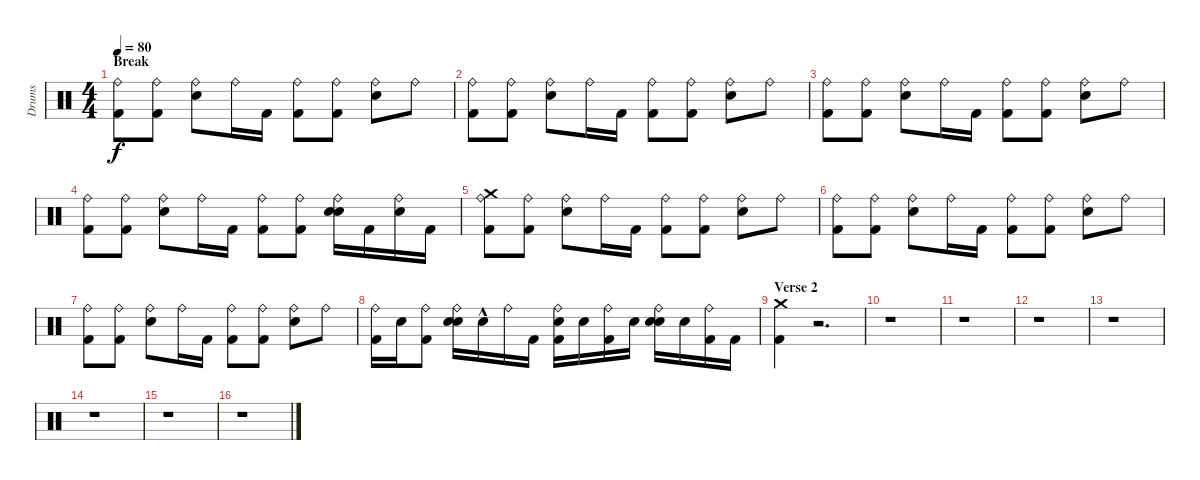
\track ("Drums" "Drums") {instrument percussion}
\staff {score}
\articulation defaults
\ts (4 4)
\section ("" "Break")
\tempo 80
\clef neutral
\ks c
("Kick (hit) 2" "Ride (bell)").8{dy f} ("Kick (hit) 2" "Ride (bell)").8 ("Electric Snare (hit)" "Ride (bell)").8 "Ride (bell)".16 "Kick (hit) 2".16 ("Kick (hit) 2" "Ride (bell)").8 ("Kick (hit) 2" "Ride (bell)").8 ("Electric Snare (hit)" "Ride (bell)").8 "Ride (bell)".8 |
("Kick (hit) 2" "Ride (bell)").8 ("Kick (hit) 2" "Ride (bell)").8 ("Electric Snare (hit)" "Ride (bell)").8 "Ride (bell)".16 "Kick (hit) 2".16 ("Kick (hit) 2" "Ride (bell)").8 ("Kick (hit) 2" "Ride (bell)").8 ("Electric Snare (hit)" "Ride (bell)").8 "Ride (bell)".8 |
("Kick (hit) 2" "Ride (bell)").8 ("Kick (hit) 2" "Ride (bell)").8 ("Electric Snare (hit)" "Ride (bell)").8 "Ride (bell)".16 "Kick (hit) 2".16 ("Kick (hit) 2" "Ride (bell)").8 ("Kick (hit) 2" "Ride (bell)").8 ("Electric Snare (hit)" "Ride (bell)").8 "Ride (bell)".8 |
("Kick (hit) 2" "Ride (bell)").8 ("Kick (hit) 2" "Ride (bell)").8 ("Electric Snare (hit)" "Ride (bell)").8 "Ride (bell)".16 "Kick (hit) 2".16 ("Kick (hit) 2" "Ride (bell)").8 ("Ride (bell)" "Kick (hit) 2").8 ("Ride (bell)" "Electric Snare (hit)" "Electric Snare (hit)").16 "Kick (hit) 2".16 ("Ride (bell)" "Electric Snare (hit)").16 "Kick (hit) 2".16 |
("Kick (hit) 2" "Ride (bell)" "Crash medium (hit)").8 ("Kick (hit) 2" "Ride (bell)").8 ("Electric Snare (hit)" "Ride (bell)").8 "Ride (bell)".16 "Kick (hit) 2".16 ("Kick (hit) 2" "Ride (bell)").8 ("Kick (hit) 2" "Ride (bell)").8 ("Electric Snare (hit)" "Ride (bell)").8 "Ride (bell)".8 |
("Kick (hit) 2" "Ride (bell)").8 ("Kick (hit) 2" "Ride (bell)").8 ("Electric Snare (hit)" "Ride (bell)").8 "Ride (bell)".16 "Kick (hit) 2".16 ("Kick (hit) 2" "Ride (bell)").8 ("Kick (hit) 2" "Ride (bell)").8 ("Electric Snare (hit)" "Ride (bell)").8 "Ride (bell)".8 |
("Kick (hit) 2" "Ride (bell)").8 ("Kick (hit) 2" "Ride (bell)").8 ("Electric Snare (hit)" "Ride (bell)").8 "Ride (bell)".16 "Kick (hit) 2".16 ("Kick (hit) 2" "Ride (bell)").8 ("Kick (hit) 2" "Ride (bell)").8 ("Electric Snare (hit)" "Ride (bell)").8 "Ride (bell)".8 |
("Kick (hit) 2" "Ride (bell)").16 "Electric Snare (hit)".16 ("Kick (hit) 2" "Ride (bell)").8 ("Electric Snare (hit)" "Ride (bell)" "Electric Snare (hit)").16 "Electric Snare (hit)"{hac}.16 "Ride (bell)".16 "Kick (hit) 2".16 ("Kick (hit) 2" "Ride (bell)" "Electric Snare (hit)").16 "Electric Snare (hit)".16 ("Ride (bell)" "Kick (hit) 2").16 "Electric Snare (hit)".16 ("Ride (bell)" "Electric Snare (hit)" "Electric Snare (hit)").16 "Electric Snare (hit)".16 ("Ride (bell)" "Kick (hit) 2").16 "Kick (hit) 2".16 |
\section ("" "Verse 2")
("Crash medium (hit)" "Kick (hit) 2").4 r.2{d} |
r.1 |
r.1 |
r.1 |
r.1 |
r.1 |
r.1 |
r.1
